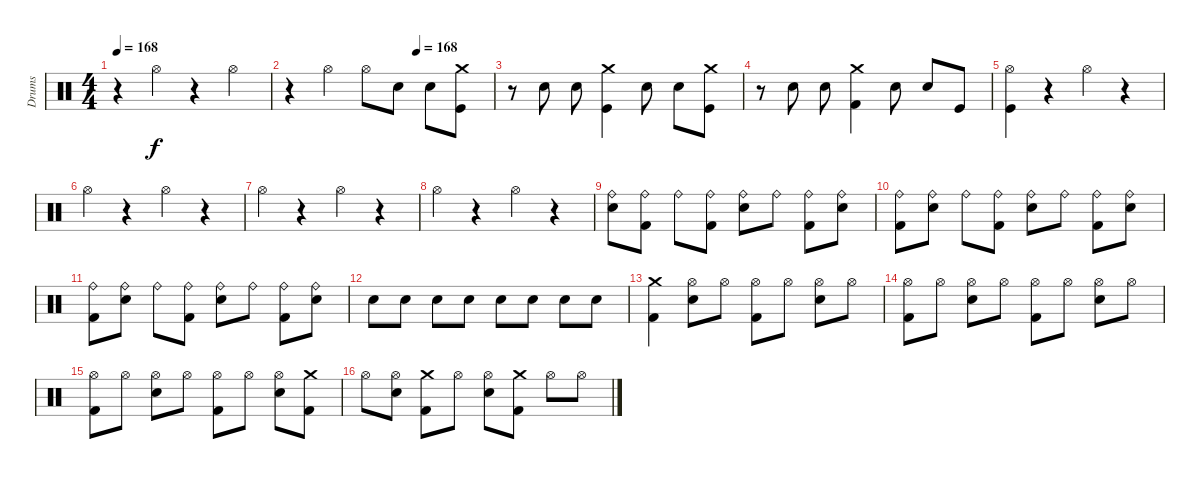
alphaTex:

\track ("Drums" "Drums") {instrument percussion}
\staff {score}
\articulation defaults
\ts (4 4)
\tempo 168
\clef neutral
\ks c
r.4{dy f} "Hi-Hat (open)".4 r.4 "Hi-Hat (open)".4 |
\tempo (168 0.625)
r.4 "Hi-Hat (open)".4 "Hi-Hat (open)".8 "Snare (hit) 2".8 "Snare (hit) 2".8 ("Crash medium (hit)" "Kick (hit)").8 |
r.8 "Snare (hit) 2".8 "Snare (hit) 2".8 ("Crash medium (hit)" "Kick (hit)").4 "Snare (hit) 2".8 "Snare (hit) 2".8 ("Crash medium (hit)" "Kick (hit)").8 |
r.8 "Snare (hit) 2".8 "Snare (hit) 2".8 ("Kick (hit) 2" "Crash medium (hit)").4 "Snare (hit) 2".8 "Snare (hit) 2".8 "Kick (hit)".8 |
("Kick (hit)" "Hi-Hat (open)").4 r.4 "Hi-Hat (open)".4 r.4 |
"Hi-Hat (open)".4 r.4 "Hi-Hat (open)".4 r.4 |
"Hi-Hat (open)".4 r.4 "Hi-Hat (open)".4 r.4 |
"Hi-Hat (open)".4 r.4 "Hi-Hat (open)".4 r.4 |
("Ride (bell)" "Snare (hit) 2").8 ("Kick (hit) 2" "Ride (bell)").8 "Ride (bell)".8 ("Kick (hit) 2" "Ride (bell)").8 ("Snare (hit) 2" "Ride (bell)").8 "Ride (bell)".8 ("Kick (hit) 2" "Ride (bell)").8 ("Snare (hit) 2" "Ride (bell)").8 |
("Kick (hit) 2" "Ride (bell)").8 ("Snare (hit) 2" "Ride (bell)").8 "Ride (bell)".8 ("Kick (hit) 2" "Ride (bell)").8 ("Snare (hit) 2" "Ride (bell)").8 "Ride (bell)".8 ("Kick (hit) 2" "Ride (bell)").8 ("Snare (hit) 2" "Ride (bell)").8 |
("Kick (hit) 2" "Ride (bell)").8 ("Snare (hit) 2" "Ride (bell)").8 "Ride (bell)".8 ("Kick (hit) 2" "Ride (bell)").8 ("Snare (hit) 2" "Ride (bell)").8 "Ride (bell)".8 ("Kick (hit) 2" "Ride (bell)").8 ("Snare (hit) 2" "Ride (bell)").8 |
"Snare (hit) 2".8 "Snare (hit) 2".8 "Snare (hit) 2".8 "Snare (hit) 2".8 "Snare (hit) 2".8 "Snare (hit) 2".8 "Snare (hit) 2".8 "Snare (hit) 2".8 |
("Crash medium (hit)" "Kick (hit) 2").4 ("Snare (hit) 2" "Hi-Hat (open)").8 "Hi-Hat (open)".8 ("Kick (hit) 2" "Hi-Hat (open)").8 "Hi-Hat (open)".8 ("Snare (hit) 2" "Hi-Hat (open)").8 "Hi-Hat (open)".8 |
("Kick (hit) 2" "Hi-Hat (open)").8 "Hi-Hat (open)".8 ("Snare (hit) 2" "Hi-Hat (open)").8 "Hi-Hat (open)".8 ("Kick (hit) 2" "Hi-Hat (open)").8 "Hi-Hat (open)".8 ("Snare (hit) 2" "Hi-Hat (open)").8 "Hi-Hat (open)".8 |
("Kick (hit) 2" "Hi-Hat (open)").8 "Hi-Hat (open)".8 ("Snare (hit) 2" "Hi-Hat (open)").8 "Hi-Hat (open)".8 ("Kick (hit) 2" "Hi-Hat (open)").8 "Hi-Hat (open)".8 ("Snare (hit) 2" "Hi-Hat (open)").8 ("Kick (hit) 2" "Crash medium (hit)").8 |
"Hi-Hat (open)".8 ("Snare (hit) 2" "Hi-Hat (open)").8 ("Kick (hit) 2" "Crash medium (hit)").8 "Hi-Hat (open)".8 ("Snare (hit) 2" "Hi-Hat (open)").8 ("Kick (hit) 2" "Crash medium (hit)").8 "Hi-Hat (open)".8 "Hi-Hat (open)".8
